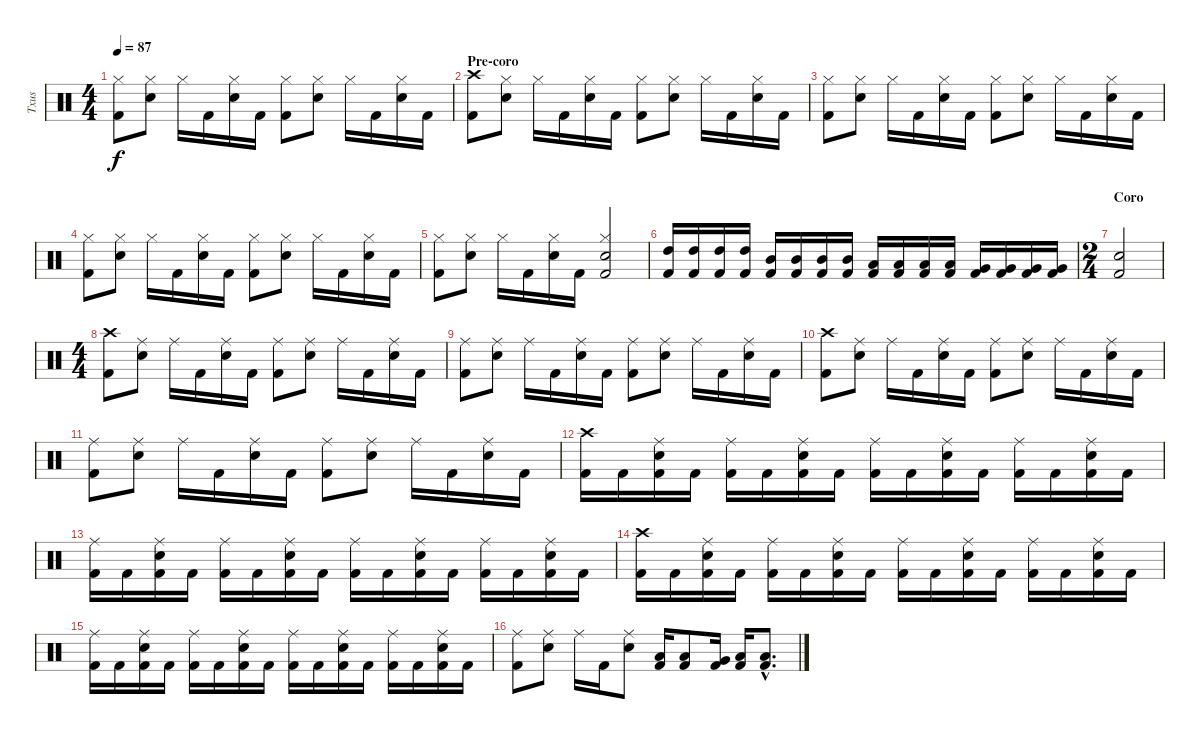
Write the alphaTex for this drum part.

\track ("Txus" "Txus") {instrument percussion}
\staff {score}
\articulation defaults
\ts (4 4)
\tempo 87
\clef neutral
\ks c
("Kick (hit) 2" "Hi-Hat (closed)").8{dy f} ("Electric Snare (hit)" "Hi-Hat (closed)").8 "Hi-Hat (closed)".16 "Kick (hit) 2".16 ("Electric Snare (hit)" "Hi-Hat (closed)").16 "Kick (hit) 2".16 ("Kick (hit) 2" "Hi-Hat (closed)").8 ("Electric Snare (hit)" "Hi-Hat (closed)").8 "Hi-Hat (closed)".16 "Kick (hit) 2".16 ("Electric Snare (hit)" "Hi-Hat (closed)").16 "Kick (hit) 2".16 |
\section ("" "Pre-coro")
("Kick (hit) 2" "Crash high (hit)").8 ("Electric Snare (hit)" "Hi-Hat (closed)").8 "Hi-Hat (closed)".16 "Kick (hit) 2".16 ("Electric Snare (hit)" "Hi-Hat (closed)").16 "Kick (hit) 2".16 ("Kick (hit) 2" "Hi-Hat (closed)").8 ("Electric Snare (hit)" "Hi-Hat (closed)").8 "Hi-Hat (closed)".16 "Kick (hit) 2".16 ("Electric Snare (hit)" "Hi-Hat (closed)").16 "Kick (hit) 2".16 |
("Kick (hit) 2" "Hi-Hat (closed)").8 ("Electric Snare (hit)" "Hi-Hat (closed)").8 "Hi-Hat (closed)".16 "Kick (hit) 2".16 ("Electric Snare (hit)" "Hi-Hat (closed)").16 "Kick (hit) 2".16 ("Kick (hit) 2" "Hi-Hat (closed)").8 ("Electric Snare (hit)" "Hi-Hat (closed)").8 "Hi-Hat (closed)".16 "Kick (hit) 2".16 ("Electric Snare (hit)" "Hi-Hat (closed)").16 "Kick (hit) 2".16 |
("Kick (hit) 2" "Hi-Hat (closed)").8 ("Electric Snare (hit)" "Hi-Hat (closed)").8 "Hi-Hat (closed)".16 "Kick (hit) 2".16 ("Electric Snare (hit)" "Hi-Hat (closed)").16 "Kick (hit) 2".16 ("Kick (hit) 2" "Hi-Hat (closed)").8 ("Electric Snare (hit)" "Hi-Hat (closed)").8 "Hi-Hat (closed)".16 "Kick (hit) 2".16 ("Electric Snare (hit)" "Hi-Hat (closed)").16 "Kick (hit) 2".16 |
("Kick (hit) 2" "Hi-Hat (closed)").8 ("Electric Snare (hit)" "Hi-Hat (closed)").8 "Hi-Hat (closed)".16 "Kick (hit) 2".16 ("Electric Snare (hit)" "Hi-Hat (closed)").16 "Kick (hit) 2".16 ("Kick (hit) 2" "Electric Snare (hit)" "Hi-Hat (closed)").2 |
("Kick (hit) 2" "High Tom (hit)").16 ("Kick (hit) 2" "High Tom (hit)").16 ("Kick (hit) 2" "High Tom (hit)").16 ("Kick (hit) 2" "High Tom (hit)").16 ("Kick (hit) 2" "Mid Tom (hit)").16 ("Kick (hit) 2" "Mid Tom (hit)").16 ("Kick (hit) 2" "Mid Tom (hit)").16 ("Kick (hit) 2" "Mid Tom (hit)").16 ("Kick (hit) 2" "Low Tom (hit)").16 ("Kick (hit) 2" "Low Tom (hit)").16 ("Kick (hit) 2" "Low Tom (hit)").16 ("Kick (hit) 2" "Low Tom (hit)").16 ("Kick (hit) 2" "Very Low Tom (hit)").16 ("Kick (hit) 2" "Very Low Tom (hit)").16 ("Kick (hit) 2" "Very Low Tom (hit)").16 ("Kick (hit) 2" "Very Low Tom (hit)").16 |
\ts (2 4)
\section ("" "Coro")
("Kick (hit) 2" "Electric Snare (hit)").2 |
\ts (4 4)
("Kick (hit) 2" "Crash high (hit)").8 ("Electric Snare (hit)" "Ride (middle)").8 "Ride (middle)".16 "Kick (hit) 2".16 ("Electric Snare (hit)" "Ride (middle)").16 "Kick (hit) 2".16 ("Kick (hit) 2" "Ride (middle)").8 ("Electric Snare (hit)" "Ride (middle)").8 "Ride (middle)".16 "Kick (hit) 2".16 ("Electric Snare (hit)" "Ride (middle)").16 "Kick (hit) 2".16 |
("Kick (hit) 2" "Ride (middle)").8 ("Electric Snare (hit)" "Ride (middle)").8 "Ride (middle)".16 "Kick (hit) 2".16 ("Electric Snare (hit)" "Ride (middle)").16 "Kick (hit) 2".16 ("Kick (hit) 2" "Ride (middle)").8 ("Electric Snare (hit)" "Ride (middle)").8 "Ride (middle)".16 "Kick (hit) 2".16 ("Electric Snare (hit)" "Ride (middle)").16 "Kick (hit) 2".16 |
("Kick (hit) 2" "Crash high (hit)").8 ("Electric Snare (hit)" "Ride (middle)").8 "Ride (middle)".16 "Kick (hit) 2".16 ("Electric Snare (hit)" "Ride (middle)").16 "Kick (hit) 2".16 ("Kick (hit) 2" "Ride (middle)").8 ("Electric Snare (hit)" "Ride (middle)").8 "Ride (middle)".16 "Kick (hit) 2".16 ("Electric Snare (hit)" "Ride (middle)").16 "Kick (hit) 2".16 |
("Kick (hit) 2" "Ride (middle)").8 ("Electric Snare (hit)" "Ride (middle)").8 "Ride (middle)".16 "Kick (hit) 2".16 ("Electric Snare (hit)" "Ride (middle)").16 "Kick (hit) 2".16 ("Kick (hit) 2" "Ride (middle)").8 ("Electric Snare (hit)" "Ride (middle)").8 "Ride (middle)".16 "Kick (hit) 2".16 ("Electric Snare (hit)" "Ride (middle)").16 "Kick (hit) 2".16 |
("Kick (hit) 2" "Crash high (hit)").16 "Kick (hit) 2".16 ("Kick (hit) 2" "Electric Snare (hit)" "Ride (middle)").16 "Kick (hit) 2".16 ("Kick (hit) 2" "Ride (middle)").16 "Kick (hit) 2".16 ("Kick (hit) 2" "Electric Snare (hit)" "Ride (middle)").16 "Kick (hit) 2".16 ("Kick (hit) 2" "Ride (middle)").16 "Kick (hit) 2".16 ("Kick (hit) 2" "Electric Snare (hit)" "Ride (middle)").16 "Kick (hit) 2".16 ("Kick (hit) 2" "Ride (middle)").16 "Kick (hit) 2".16 ("Kick (hit) 2" "Electric Snare (hit)" "Ride (middle)").16 "Kick (hit) 2".16 |
("Kick (hit) 2" "Ride (middle)").16 "Kick (hit) 2".16 ("Kick (hit) 2" "Electric Snare (hit)" "Ride (middle)").16 "Kick (hit) 2".16 ("Kick (hit) 2" "Ride (middle)").16 "Kick (hit) 2".16 ("Kick (hit) 2" "Electric Snare (hit)" "Ride (middle)").16 "Kick (hit) 2".16 ("Kick (hit) 2" "Ride (middle)").16 "Kick (hit) 2".16 ("Kick (hit) 2" "Electric Snare (hit)" "Ride (middle)").16 "Kick (hit) 2".16 ("Kick (hit) 2" "Ride (middle)").16 "Kick (hit) 2".16 ("Kick (hit) 2" "Electric Snare (hit)" "Ride (middle)").16 "Kick (hit) 2".16 |
("Kick (hit) 2" "Crash high (hit)").16 "Kick (hit) 2".16 ("Kick (hit) 2" "Electric Snare (hit)" "Ride (middle)").16 "Kick (hit) 2".16 ("Kick (hit) 2" "Ride (middle)").16 "Kick (hit) 2".16 ("Kick (hit) 2" "Electric Snare (hit)" "Ride (middle)").16 "Kick (hit) 2".16 ("Kick (hit) 2" "Ride (middle)").16 "Kick (hit) 2".16 ("Kick (hit) 2" "Electric Snare (hit)" "Ride (middle)").16 "Kick (hit) 2".16 ("Kick (hit) 2" "Ride (middle)").16 "Kick (hit) 2".16 ("Kick (hit) 2" "Electric Snare (hit)" "Ride (middle)").16 "Kick (hit) 2".16 |
("Kick (hit) 2" "Ride (middle)").16 "Kick (hit) 2".16 ("Kick (hit) 2" "Electric Snare (hit)" "Ride (middle)").16 "Kick (hit) 2".16 ("Kick (hit) 2" "Ride (middle)").16 "Kick (hit) 2".16 ("Kick (hit) 2" "Electric Snare (hit)" "Ride (middle)").16 "Kick (hit) 2".16 ("Kick (hit) 2" "Ride (middle)").16 "Kick (hit) 2".16 ("Kick (hit) 2" "Electric Snare (hit)" "Ride (middle)").16 "Kick (hit) 2".16 ("Kick (hit) 2" "Ride (middle)").16 "Kick (hit) 2".16 ("Kick (hit) 2" "Electric Snare (hit)" "Ride (middle)").16 "Kick (hit) 2".16 |
("Kick (hit) 2" "Ride (middle)").8 ("Electric Snare (hit)" "Ride (middle)").8 "Ride (middle)".16 "Kick (hit) 2".16 ("Electric Snare (hit)" "Ride (middle)").8 ("Kick (hit) 2" "Low Tom (hit)").16 ("Kick (hit) 2" "Low Tom (hit)").8 ("Kick (hit) 2" "Very Low Tom (hit)").16 ("Kick (hit) 2" "Low Tom (hit)").16 ("Kick (hit) 2"{hac} "Low Tom (hit)"{hac}).8{d}
